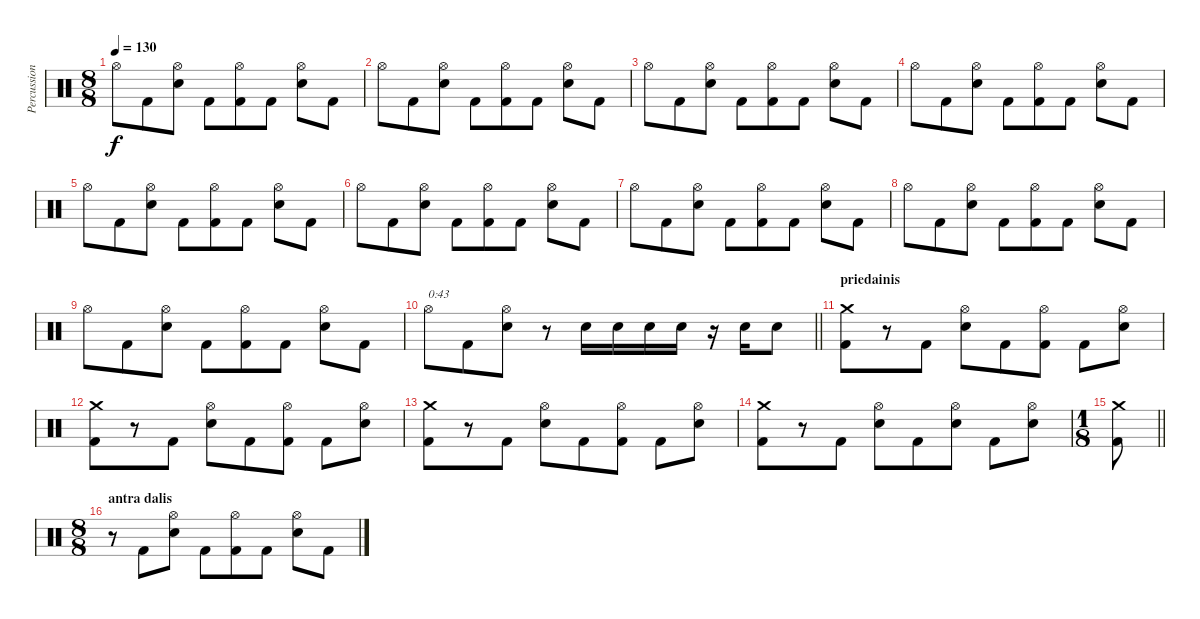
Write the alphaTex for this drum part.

\track ("Percussion" "Percussion") {instrument percussion}
\staff {score}
\articulation defaults
\ts (8 8)
\tempo 130
\clef neutral
\ks c "Hi-Hat (open)".8{dy f} "Kick (hit) 2".8
("Hi-Hat (open)" "Snare (hit) 2").8 "Kick (hit) 2".8 ("Hi-Hat (open)" "Kick (hit) 2").8 "Kick (hit) 2".8 ("Hi-Hat (open)" "Snare (hit) 2").8 "Kick (hit) 2".8 |
"Hi-Hat (open)".8 "Kick (hit) 2".8 ("Hi-Hat (open)" "Snare (hit) 2").8 "Kick (hit) 2".8 ("Hi-Hat (open)" "Kick (hit) 2").8 "Kick (hit) 2".8 ("Hi-Hat (open)" "Snare (hit) 2").8 "Kick (hit) 2".8 |
"Hi-Hat (open)".8 "Kick (hit) 2".8 ("Hi-Hat (open)" "Snare (hit) 2").8 "Kick (hit) 2".8 ("Hi-Hat (open)" "Kick (hit) 2").8 "Kick (hit) 2".8 ("Hi-Hat (open)" "Snare (hit) 2").8 "Kick (hit) 2".8 |
"Hi-Hat (open)".8 "Kick (hit) 2".8 ("Hi-Hat (open)" "Snare (hit) 2").8 "Kick (hit) 2".8 ("Hi-Hat (open)" "Kick (hit) 2").8 "Kick (hit) 2".8 ("Hi-Hat (open)" "Snare (hit) 2").8 "Kick (hit) 2".8 |
"Hi-Hat (open)".8 "Kick (hit) 2".8 ("Hi-Hat (open)" "Snare (hit) 2").8 "Kick (hit) 2".8 ("Hi-Hat (open)" "Kick (hit) 2").8 "Kick (hit) 2".8 ("Hi-Hat (open)" "Snare (hit) 2").8 "Kick (hit) 2".8 |
"Hi-Hat (open)".8 "Kick (hit) 2".8 ("Hi-Hat (open)" "Snare (hit) 2").8 "Kick (hit) 2".8 ("Hi-Hat (open)" "Kick (hit) 2").8 "Kick (hit) 2".8 ("Hi-Hat (open)" "Snare (hit) 2").8 "Kick (hit) 2".8 |
"Hi-Hat (open)".8 "Kick (hit) 2".8 ("Hi-Hat (open)" "Snare (hit) 2").8 "Kick (hit) 2".8 ("Hi-Hat (open)" "Kick (hit) 2").8 "Kick (hit) 2".8 ("Hi-Hat (open)" "Snare (hit) 2").8 "Kick (hit) 2".8 |
"Hi-Hat (open)".8 "Kick (hit) 2".8 ("Hi-Hat (open)" "Snare (hit) 2").8 "Kick (hit) 2".8 ("Hi-Hat (open)" "Kick (hit) 2").8 "Kick (hit) 2".8 ("Hi-Hat (open)" "Snare (hit) 2").8 "Kick (hit) 2".8 |
"Hi-Hat (open)".8 "Kick (hit) 2".8 ("Hi-Hat (open)" "Snare (hit) 2").8 "Kick (hit) 2".8 ("Hi-Hat (open)" "Kick (hit) 2").8 "Kick (hit) 2".8 ("Hi-Hat (open)" "Snare (hit) 2").8 "Kick (hit) 2".8 |
\barLineRight lightlight "Hi-Hat (open)".8{txt "0:43"} "Kick (hit) 2".8
("Hi-Hat (open)" "Snare (hit) 2").8 r.8 "Snare (hit) 2".16 "Snare (hit) 2".16 "Snare (hit) 2".16 "Snare (hit) 2".16 r.16 "Snare (hit) 2".16 "Snare (hit) 2".8 |
\section ("" "priedainis")
("Crash medium (hit)" "Kick (hit) 2").8 r.8 "Kick (hit) 2".8 ("Hi-Hat (open)" "Snare (hit) 2").8 "Kick (hit) 2".8 ("Hi-Hat (open)" "Kick (hit) 2").8 "Kick (hit) 2".8 ("Hi-Hat (open)" "Snare (hit) 2").8 |
("Crash medium (hit)" "Kick (hit) 2").8 r.8 "Kick (hit) 2".8 ("Hi-Hat (open)" "Snare (hit) 2").8 "Kick (hit) 2".8 ("Hi-Hat (open)" "Kick (hit) 2").8 "Kick (hit) 2".8 ("Hi-Hat (open)" "Snare (hit) 2").8 |
("Crash medium (hit)" "Kick (hit) 2").8 r.8 "Kick (hit) 2".8 ("Hi-Hat (open)" "Snare (hit) 2").8 "Kick (hit) 2".8 ("Hi-Hat (open)" "Kick (hit) 2").8 "Kick (hit) 2".8 ("Hi-Hat (open)" "Snare (hit) 2").8 |
("Crash medium (hit)" "Kick (hit) 2").8 r.8 "Kick (hit) 2".8 ("Hi-Hat (open)" "Snare (hit) 2").8 "Kick (hit) 2".8 ("Hi-Hat (open)" "Snare (hit) 2").8 "Kick (hit) 2".8 ("Hi-Hat (open)" "Snare (hit) 2").8 |
\ts (1 8)
\barLineRight lightlight
("Crash medium (hit)" "Kick (hit) 2").8 |
\ts (8 8)
\section ("" "antra dalis")
r.8 "Kick (hit) 2".8 ("Hi-Hat (open)" "Snare (hit) 2").8 "Kick (hit) 2".8 ("Hi-Hat (open)" "Kick (hit) 2").8 "Kick (hit) 2".8 ("Hi-Hat (open)" "Snare (hit) 2").8 "Kick (hit) 2".8
